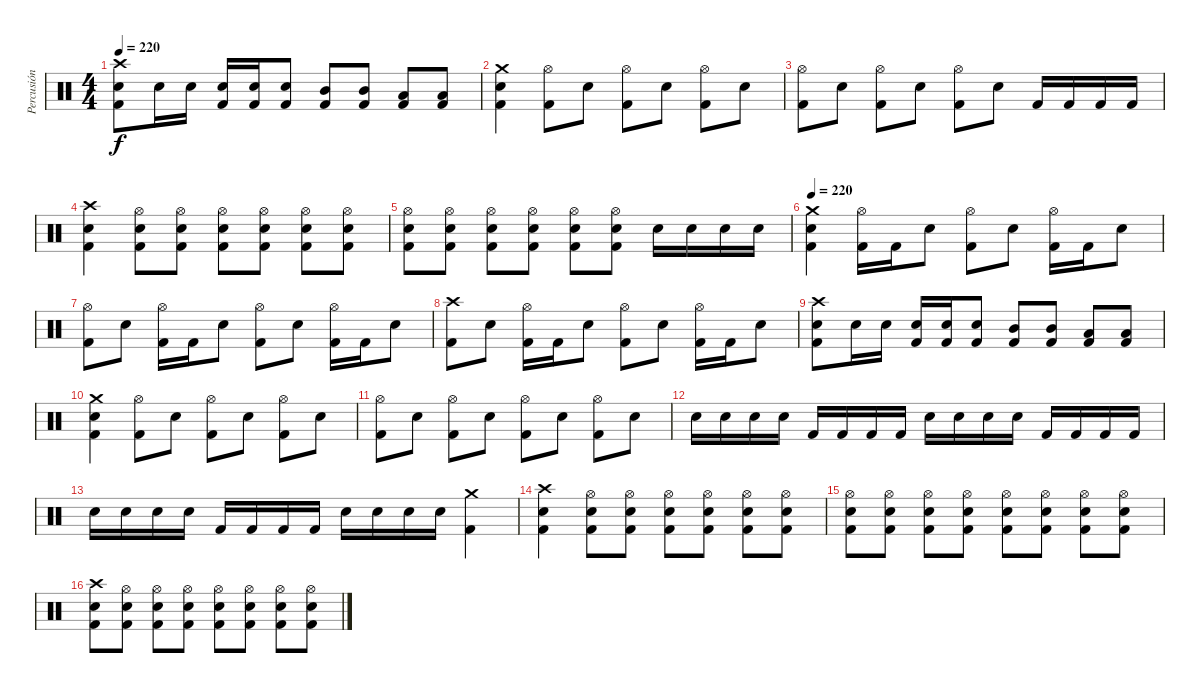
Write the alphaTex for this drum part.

\track ("Percusión" "Percusión") {instrument percussion}
\staff {score}
\articulation defaults
\ts (4 4)
\tempo 220
\clef neutral
\ks c
("Crash high (hit)" "Electric Snare (hit)" "Kick (hit) 2").8{dy f} "Electric Snare (hit)".16 "Electric Snare (hit)".16 ("Electric Snare (hit)" "Kick (hit) 2").16 ("Electric Snare (hit)" "Kick (hit) 2").16 ("Electric Snare (hit)" "Kick (hit) 2").8 ("Mid Tom (hit)" "Kick (hit) 2").8 ("Mid Tom (hit)" "Kick (hit) 2").8 ("Low Tom (hit)" "Kick (hit) 2").8 ("Low Tom (hit)" "Kick (hit) 2").8 |
("Crash medium (hit)" "Electric Snare (hit)" "Kick (hit) 2").4 ("Hi-Hat (open)" "Kick (hit) 2").8 "Electric Snare (hit)".8 ("Hi-Hat (open)" "Kick (hit) 2").8 "Electric Snare (hit)".8 ("Hi-Hat (open)" "Kick (hit) 2").8 "Electric Snare (hit)".8 |
("Hi-Hat (open)" "Kick (hit) 2").8 "Electric Snare (hit)".8 ("Hi-Hat (open)" "Kick (hit) 2").8 "Electric Snare (hit)".8 ("Hi-Hat (open)" "Kick (hit) 2").8 "Electric Snare (hit)".8 "Kick (hit) 2".16 "Kick (hit) 2".16 "Kick (hit) 2".16 "Kick (hit) 2".16 |
("Crash high (hit)" "Electric Snare (hit)" "Kick (hit) 2").4 ("Hi-Hat (open)" "Electric Snare (hit)" "Kick (hit) 2").8 ("Hi-Hat (open)" "Electric Snare (hit)" "Kick (hit) 2").8 ("Hi-Hat (open)" "Electric Snare (hit)" "Kick (hit) 2").8 ("Hi-Hat (open)" "Electric Snare (hit)" "Kick (hit) 2").8 ("Hi-Hat (open)" "Electric Snare (hit)" "Kick (hit) 2").8 ("Hi-Hat (open)" "Electric Snare (hit)" "Kick (hit) 2").8 |
("Hi-Hat (open)" "Electric Snare (hit)" "Kick (hit) 2").8 ("Hi-Hat (open)" "Electric Snare (hit)" "Kick (hit) 2").8 ("Hi-Hat (open)" "Electric Snare (hit)" "Kick (hit) 2").8 ("Hi-Hat (open)" "Electric Snare (hit)" "Kick (hit) 2").8 ("Hi-Hat (open)" "Electric Snare (hit)" "Kick (hit) 2").8 ("Hi-Hat (open)" "Electric Snare (hit)" "Kick (hit) 2").8 "Electric Snare (hit)".16 "Electric Snare (hit)".16 "Electric Snare (hit)".16 "Electric Snare (hit)".16 |
\tempo 220
("Crash medium (hit)" "Electric Snare (hit)" "Kick (hit) 2").4 ("Hi-Hat (open)" "Kick (hit) 2").16 "Kick (hit) 2".16 "Electric Snare (hit)".8 ("Hi-Hat (open)" "Kick (hit) 2").8 "Electric Snare (hit)".8 ("Hi-Hat (open)" "Kick (hit) 2").16 "Kick (hit) 2".16 "Electric Snare (hit)".8 |
("Hi-Hat (open)" "Kick (hit) 2").8 "Electric Snare (hit)".8 ("Hi-Hat (open)" "Kick (hit) 2").16 "Kick (hit) 2".16 "Electric Snare (hit)".8 ("Hi-Hat (open)" "Kick (hit) 2").8 "Electric Snare (hit)".8 ("Hi-Hat (open)" "Kick (hit) 2").16 "Kick (hit) 2".16 "Electric Snare (hit)".8 |
("Crash high (hit)" "Kick (hit) 2").8 "Electric Snare (hit)".8 ("Hi-Hat (open)" "Kick (hit) 2").16 "Kick (hit) 2".16 "Electric Snare (hit)".8 ("Hi-Hat (open)" "Kick (hit) 2").8 "Electric Snare (hit)".8 ("Hi-Hat (open)" "Kick (hit) 2").16 "Kick (hit) 2".16 "Electric Snare (hit)".8 |
("Crash high (hit)" "Electric Snare (hit)" "Kick (hit) 2").8 "Electric Snare (hit)".16 "Electric Snare (hit)".16 ("Electric Snare (hit)" "Kick (hit) 2").16 ("Electric Snare (hit)" "Kick (hit) 2").16 ("Electric Snare (hit)" "Kick (hit) 2").8 ("Mid Tom (hit)" "Kick (hit) 2").8 ("Mid Tom (hit)" "Kick (hit) 2").8 ("Low Tom (hit)" "Kick (hit) 2").8 ("Low Tom (hit)" "Kick (hit) 2").8 |
("Crash medium (hit)" "Electric Snare (hit)" "Kick (hit) 2").4 ("Hi-Hat (open)" "Kick (hit) 2").8 "Electric Snare (hit)".8 ("Hi-Hat (open)" "Kick (hit) 2").8 "Electric Snare (hit)".8 ("Hi-Hat (open)" "Kick (hit) 2").8 "Electric Snare (hit)".8 |
("Hi-Hat (open)" "Kick (hit) 2").8 "Electric Snare (hit)".8 ("Hi-Hat (open)" "Kick (hit) 2").8 "Electric Snare (hit)".8 ("Hi-Hat (open)" "Kick (hit) 2").8 "Electric Snare (hit)".8 ("Hi-Hat (open)" "Kick (hit) 2").8 "Electric Snare (hit)".8 |
"Electric Snare (hit)".16 "Electric Snare (hit)".16 "Electric Snare (hit)".16 "Electric Snare (hit)".16 "Kick (hit) 2".16 "Kick (hit) 2".16 "Kick (hit) 2".16 "Kick (hit) 2".16 "Electric Snare (hit)".16 "Electric Snare (hit)".16 "Electric Snare (hit)".16 "Electric Snare (hit)".16 "Kick (hit) 2".16 "Kick (hit) 2".16 "Kick (hit) 2".16 "Kick (hit) 2".16 |
"Electric Snare (hit)".16 "Electric Snare (hit)".16 "Electric Snare (hit)".16 "Electric Snare (hit)".16 "Kick (hit) 2".16 "Kick (hit) 2".16 "Kick (hit) 2".16 "Kick (hit) 2".16 "Electric Snare (hit)".16 "Electric Snare (hit)".16 "Electric Snare (hit)".16 "Electric Snare (hit)".16 ("Crash medium (hit)" "Kick (hit) 2").4 |
("Crash high (hit)" "Electric Snare (hit)" "Kick (hit) 2").4 ("Hi-Hat (open)" "Electric Snare (hit)" "Kick (hit) 2").8 ("Hi-Hat (open)" "Electric Snare (hit)" "Kick (hit) 2").8 ("Hi-Hat (open)" "Electric Snare (hit)" "Kick (hit) 2").8 ("Hi-Hat (open)" "Electric Snare (hit)" "Kick (hit) 2").8 ("Hi-Hat (open)" "Electric Snare (hit)" "Kick (hit) 2").8 ("Hi-Hat (open)" "Electric Snare (hit)" "Kick (hit) 2").8 |
("Hi-Hat (open)" "Electric Snare (hit)" "Kick (hit) 2").8 ("Hi-Hat (open)" "Electric Snare (hit)" "Kick (hit) 2").8 ("Hi-Hat (open)" "Electric Snare (hit)" "Kick (hit) 2").8 ("Hi-Hat (open)" "Electric Snare (hit)" "Kick (hit) 2").8 ("Hi-Hat (open)" "Electric Snare (hit)" "Kick (hit) 2").8 ("Hi-Hat (open)" "Electric Snare (hit)" "Kick (hit) 2").8 ("Hi-Hat (open)" "Electric Snare (hit)" "Kick (hit) 2").8 ("Hi-Hat (open)" "Electric Snare (hit)" "Kick (hit) 2").8 |
("Crash high (hit)" "Electric Snare (hit)" "Kick (hit) 2").8 ("Hi-Hat (open)" "Electric Snare (hit)" "Kick (hit) 2").8 ("Hi-Hat (open)" "Electric Snare (hit)" "Kick (hit) 2").8 ("Hi-Hat (open)" "Electric Snare (hit)" "Kick (hit) 2").8 ("Hi-Hat (open)" "Electric Snare (hit)" "Kick (hit) 2").8 ("Hi-Hat (open)" "Electric Snare (hit)" "Kick (hit) 2").8 ("Hi-Hat (open)" "Electric Snare (hit)" "Kick (hit) 2").8 ("Hi-Hat (open)" "Electric Snare (hit)" "Kick (hit) 2").8
